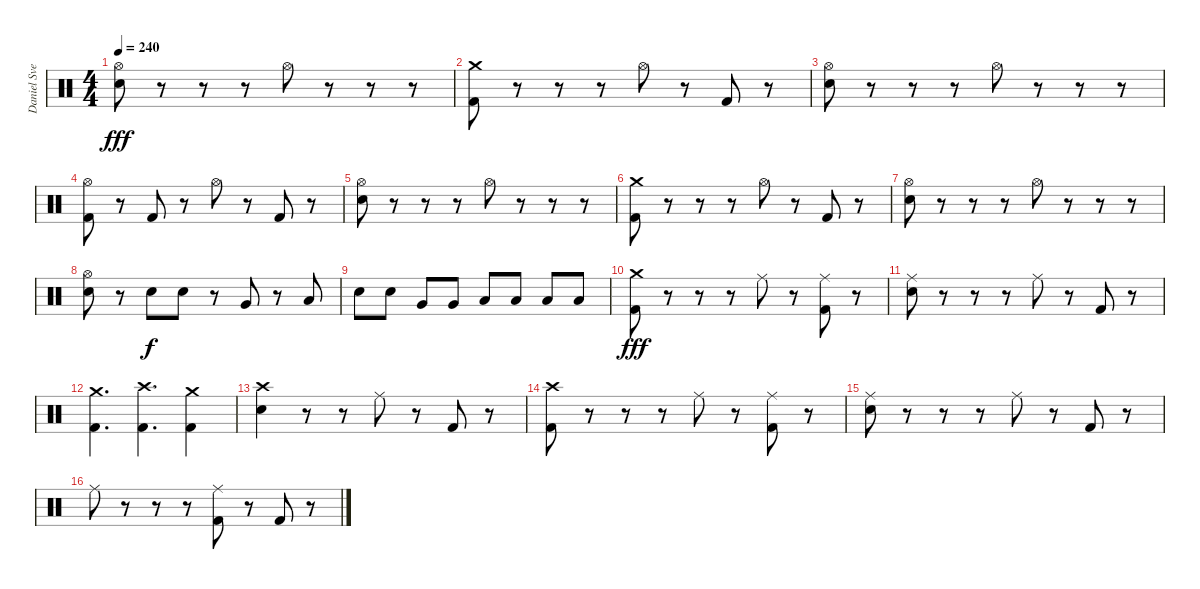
\track ("Daniel Svensson" "Daniel Sve") {instrument percussion}
\staff {score}
\articulation defaults
\ts (4 4)
\tempo 240
\clef neutral
\ks c
("Hi-Hat (open)" "Electric Snare (hit)").8{dy fff} r.8 r.8 r.8 "Hi-Hat (open)".8 r.8 r.8 r.8 |
("Crash medium (hit)" "Kick (hit) 2").8 r.8 r.8 r.8 "Hi-Hat (open)".8 r.8 "Kick (hit) 2".8 r.8 |
("Hi-Hat (open)" "Electric Snare (hit)").8 r.8 r.8 r.8 "Hi-Hat (open)".8 r.8 r.8 r.8 |
("Hi-Hat (open)" "Kick (hit) 2").8 r.8 "Kick (hit) 2".8 r.8 "Hi-Hat (open)".8 r.8 "Kick (hit) 2".8 r.8 |
("Hi-Hat (open)" "Electric Snare (hit)").8 r.8 r.8 r.8 "Hi-Hat (open)".8 r.8 r.8 r.8 |
("Crash medium (hit)" "Kick (hit) 2").8 r.8 r.8 r.8 "Hi-Hat (open)".8 r.8 "Kick (hit) 2".8 r.8 |
("Hi-Hat (open)" "Electric Snare (hit)").8 r.8 r.8 r.8 "Hi-Hat (open)".8 r.8 r.8 r.8 |
("Hi-Hat (open)" "Electric Snare (hit)").8 r.8 "Electric Snare (hit)".8{dy f} "Electric Snare (hit)".8 r.8 "Very Low Tom (hit)".8 r.8 "Low Floor Tom (hit)".8 |
"Electric Snare (hit)".8 "Electric Snare (hit)".8 "Very Low Tom (hit)".8 "Very Low Tom (hit)".8 "Low Floor Tom (hit)".8 "Low Floor Tom (hit)".8 "Low Floor Tom (hit)".8 "Low Floor Tom (hit)".8 |
("Crash medium (hit)" "Kick (hit) 2").8{dy fff} r.8 r.8 r.8 "Ride (middle)".8 r.8 ("Ride (middle)" "Kick (hit) 2").8 r.8 |
("Ride (middle)" "Electric Snare (hit)").8 r.8 r.8 r.8 "Ride (middle)".8 r.8 "Kick (hit) 2".8 r.8 |
("Crash medium (hit)" "Kick (hit) 2").4{d} ("Crash high (hit)" "Kick (hit) 2").4{d} ("Crash medium (hit)" "Kick (hit) 2").4 |
("Crash high (hit)" "Electric Snare (hit)").4 r.8 r.8 "Ride (middle)".8 r.8 "Kick (hit) 2".8 r.8 |
("Crash high (hit)" "Kick (hit) 2").8 r.8 r.8 r.8 "Ride (middle)".8 r.8 ("Ride (middle)" "Kick (hit) 2").8 r.8 |
("Ride (middle)" "Electric Snare (hit)").8 r.8 r.8 r.8 "Ride (middle)".8 r.8 "Kick (hit) 2".8 r.8 |
"Ride (middle)".8 r.8 r.8 r.8 ("Ride (middle)" "Kick (hit) 2").8 r.8 "Kick (hit) 2".8 r.8
